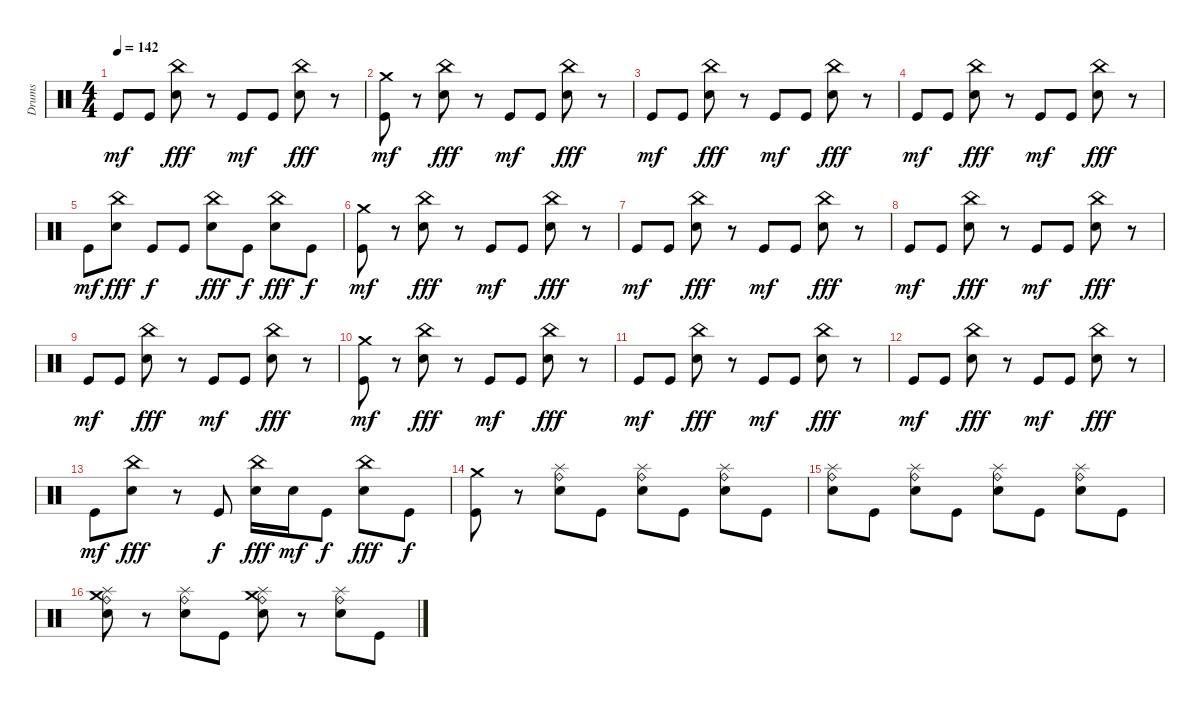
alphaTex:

\track ("Drums" "Drums") {instrument percussion}
\staff {score}
\articulation defaults
\ts (4 4)
\tempo 142
\clef neutral
\ks c "Kick (hit)".8{dy mf} "Kick (hit)".8
("China (hit)" "Electric Snare (hit)").8{dy fff} r.8 "Kick (hit)".8{dy mf} "Kick (hit)".8 ("China (hit)" "Electric Snare (hit)").8{dy fff} r.8 |
("Crash medium (hit)" "Kick (hit)").8{dy mf} r.8 ("China (hit)" "Electric Snare (hit)").8{dy fff} r.8 "Kick (hit)".8{dy mf} "Kick (hit)".8 ("China (hit)" "Electric Snare (hit)").8{dy fff} r.8 |
"Kick (hit)".8{dy mf} "Kick (hit)".8 ("China (hit)" "Electric Snare (hit)").8{dy fff} r.8 "Kick (hit)".8{dy mf} "Kick (hit)".8 ("China (hit)" "Electric Snare (hit)").8{dy fff} r.8 |
"Kick (hit)".8{dy mf} "Kick (hit)".8 ("China (hit)" "Electric Snare (hit)").8{dy fff} r.8 "Kick (hit)".8{dy mf} "Kick (hit)".8 ("China (hit)" "Electric Snare (hit)").8{dy fff} r.8 |
"Kick (hit)".8{dy mf} ("China (hit)" "Electric Snare (hit)").8{dy fff} "Kick (hit)".8{dy f} "Kick (hit)".8 ("China (hit)" "Electric Snare (hit)").8{dy fff} "Kick (hit)".8{dy f} ("China (hit)" "Electric Snare (hit)").8{dy fff} "Kick (hit)".8{dy f} |
("Crash medium (hit)" "Kick (hit)").8{dy mf} r.8 ("China (hit)" "Electric Snare (hit)").8{dy fff} r.8 "Kick (hit)".8{dy mf} "Kick (hit)".8 ("China (hit)" "Electric Snare (hit)").8{dy fff} r.8 |
"Kick (hit)".8{dy mf} "Kick (hit)".8 ("China (hit)" "Electric Snare (hit)").8{dy fff} r.8 "Kick (hit)".8{dy mf} "Kick (hit)".8 ("China (hit)" "Electric Snare (hit)").8{dy fff} r.8 |
"Kick (hit)".8{dy mf} "Kick (hit)".8 ("China (hit)" "Electric Snare (hit)").8{dy fff} r.8 "Kick (hit)".8{dy mf} "Kick (hit)".8 ("China (hit)" "Electric Snare (hit)").8{dy fff} r.8 |
"Kick (hit)".8{dy mf} "Kick (hit)".8 ("China (hit)" "Electric Snare (hit)").8{dy fff} r.8 "Kick (hit)".8{dy mf} "Kick (hit)".8 ("China (hit)" "Electric Snare (hit)").8{dy fff} r.8 |
("Crash medium (hit)" "Kick (hit)").8{dy mf} r.8 ("China (hit)" "Electric Snare (hit)").8{dy fff} r.8 "Kick (hit)".8{dy mf} "Kick (hit)".8 ("China (hit)" "Electric Snare (hit)").8{dy fff} r.8 |
"Kick (hit)".8{dy mf} "Kick (hit)".8 ("China (hit)" "Electric Snare (hit)").8{dy fff} r.8 "Kick (hit)".8{dy mf} "Kick (hit)".8 ("China (hit)" "Electric Snare (hit)").8{dy fff} r.8 |
"Kick (hit)".8{dy mf} "Kick (hit)".8 ("China (hit)" "Electric Snare (hit)").8{dy fff} r.8 "Kick (hit)".8{dy mf} "Kick (hit)".8 ("China (hit)" "Electric Snare (hit)").8{dy fff} r.8 |
"Kick (hit)".8{dy mf} ("China (hit)" "Electric Snare (hit)").8{dy fff} r.8 "Kick (hit)".8{dy f} ("China (hit)" "Electric Snare (hit)").16{dy fff} "Electric Snare (hit)".16{dy mf} "Kick (hit)".8{dy f} ("China (hit)" "Electric Snare (hit)").8{dy fff} "Kick (hit)".8{dy f} |
("Crash medium (hit)" "Kick (hit)").8 r.8 ("Splash (hit)" "Ride (bell)" "Electric Snare (hit)").8 "Kick (hit)".8 ("Electric Snare (hit)" "Splash (hit)" "Ride (bell)").8 "Kick (hit)".8 ("Electric Snare (hit)" "Ride (bell)" "Splash (hit)").8 "Kick (hit)".8 |
("Splash (hit)" "Ride (bell)" "Electric Snare (hit)").8 "Kick (hit)".8 ("Splash (hit)" "Ride (bell)" "Electric Snare (hit)").8 "Kick (hit)".8 ("Electric Snare (hit)" "Splash (hit)" "Ride (bell)").8 "Kick (hit)".8 ("Electric Snare (hit)" "Ride (bell)" "Splash (hit)").8 "Kick (hit)".8 |
("Crash medium (hit)" "Splash (hit)" "Ride (bell)" "Electric Snare (hit)").8 r.8 ("Splash (hit)" "Ride (bell)" "Electric Snare (hit)").8 "Kick (hit)".8 ("Crash medium (hit)" "Electric Snare (hit)" "Splash (hit)" "Ride (bell)").8 r.8 ("Electric Snare (hit)" "Ride (bell)" "Splash (hit)").8 "Kick (hit)".8
